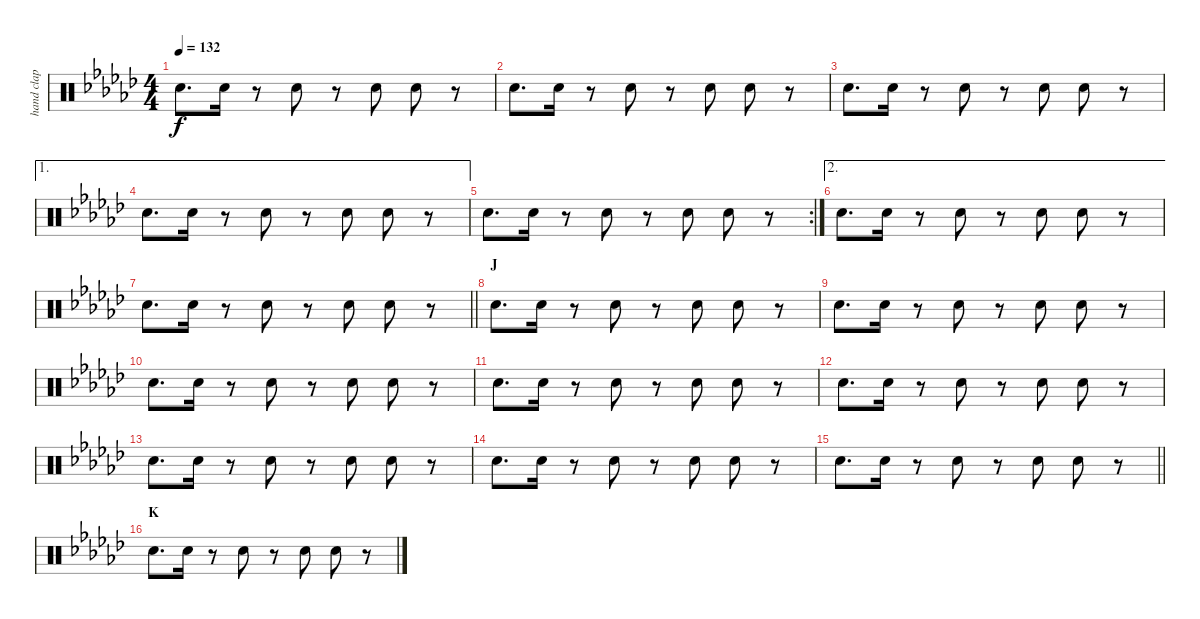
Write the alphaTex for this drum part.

\track ("hand clap" "hand clap") {instrument percussion}
\staff {score}
\articulation defaults
\ts (4 4)
\tempo 132
\clef neutral
\ks gb "Hand Clap (hit)".8{d dy f} "Hand Clap (hit)".16
r.8 "Hand Clap (hit)".8 r.8 "Hand Clap (hit)".8 "Hand Clap (hit)".8 r.8 |
"Hand Clap (hit)".8{d} "Hand Clap (hit)".16 r.8 "Hand Clap (hit)".8 r.8 "Hand Clap (hit)".8 "Hand Clap (hit)".8 r.8 |
"Hand Clap (hit)".8{d} "Hand Clap (hit)".16 r.8 "Hand Clap (hit)".8 r.8 "Hand Clap (hit)".8 "Hand Clap (hit)".8 r.8 |
\ae 1 "Hand Clap (hit)".8{d} "Hand Clap (hit)".16
r.8 "Hand Clap (hit)".8 r.8 "Hand Clap (hit)".8 "Hand Clap (hit)".8 r.8 |
\rc 2 "Hand Clap (hit)".8{d} "Hand Clap (hit)".16
r.8 "Hand Clap (hit)".8 r.8 "Hand Clap (hit)".8 "Hand Clap (hit)".8 r.8 |
\ae 2 "Hand Clap (hit)".8{d} "Hand Clap (hit)".16
r.8 "Hand Clap (hit)".8 r.8 "Hand Clap (hit)".8 "Hand Clap (hit)".8 r.8 |
\barLineRight lightlight "Hand Clap (hit)".8{d} "Hand Clap (hit)".16
r.8 "Hand Clap (hit)".8 r.8 "Hand Clap (hit)".8 "Hand Clap (hit)".8 r.8 |
\section ("" "J")
"Hand Clap (hit)".8{d} "Hand Clap (hit)".16 r.8 "Hand Clap (hit)".8 r.8 "Hand Clap (hit)".8 "Hand Clap (hit)".8 r.8 |
"Hand Clap (hit)".8{d} "Hand Clap (hit)".16 r.8 "Hand Clap (hit)".8 r.8 "Hand Clap (hit)".8 "Hand Clap (hit)".8 r.8 |
"Hand Clap (hit)".8{d} "Hand Clap (hit)".16 r.8 "Hand Clap (hit)".8 r.8 "Hand Clap (hit)".8 "Hand Clap (hit)".8 r.8 |
"Hand Clap (hit)".8{d} "Hand Clap (hit)".16 r.8 "Hand Clap (hit)".8 r.8 "Hand Clap (hit)".8 "Hand Clap (hit)".8 r.8 |
"Hand Clap (hit)".8{d} "Hand Clap (hit)".16 r.8 "Hand Clap (hit)".8 r.8 "Hand Clap (hit)".8 "Hand Clap (hit)".8 r.8 |
"Hand Clap (hit)".8{d} "Hand Clap (hit)".16 r.8 "Hand Clap (hit)".8 r.8 "Hand Clap (hit)".8 "Hand Clap (hit)".8 r.8 |
"Hand Clap (hit)".8{d} "Hand Clap (hit)".16 r.8 "Hand Clap (hit)".8 r.8 "Hand Clap (hit)".8 "Hand Clap (hit)".8 r.8 |
\barLineRight lightlight "Hand Clap (hit)".8{d} "Hand Clap (hit)".16
r.8 "Hand Clap (hit)".8 r.8 "Hand Clap (hit)".8 "Hand Clap (hit)".8 r.8 |
\section ("" "K")
"Hand Clap (hit)".8{d} "Hand Clap (hit)".16 r.8 "Hand Clap (hit)".8 r.8 "Hand Clap (hit)".8 "Hand Clap (hit)".8 r.8
